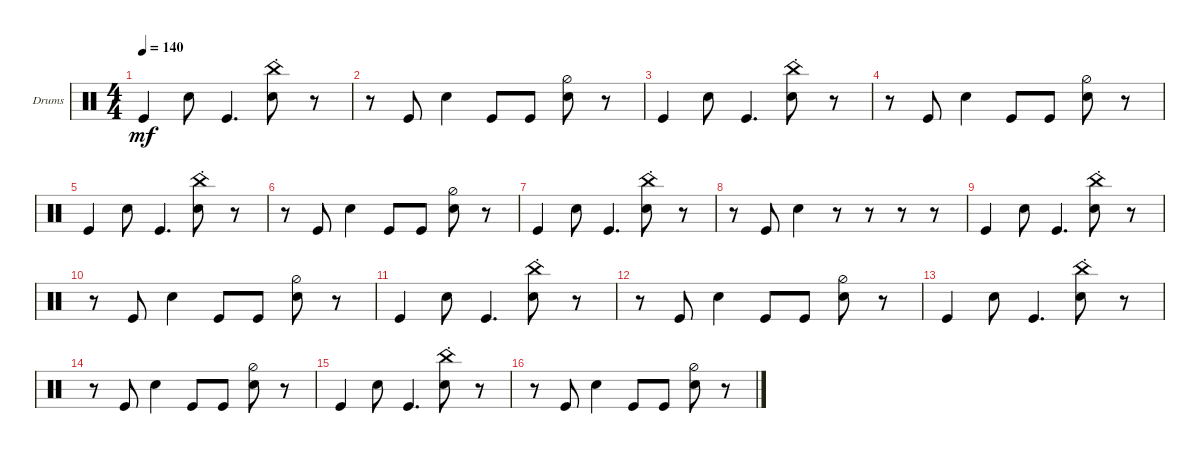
\defaultSystemsLayout 4
\bracketExtendMode groupsimilarinstruments
\firstSystemTrackNameOrientation horizontal
\otherSystemsTrackNameOrientation horizontal
\track ("Drumkit" "Drums") {instrument percussion}
\staff {score}
\articulation defaults
\ts (4 4)
\tempo 140
\clef neutral
\ks c "Kick (hit)".4{dy mf} "Snare (hit) 2".8 "Kick (hit)".4{d}
("Snare (hit) 2" "China (hit)"{st}).8 r.8 |
r.8 "Kick (hit)".8 "Snare (hit) 2".4 "Kick (hit)".8 "Kick (hit)".8 ("Snare (hit) 2" "Hi-Hat (half)").8 r.8 |
"Kick (hit)".4 "Snare (hit) 2".8 "Kick (hit)".4{d} ("Snare (hit) 2" "China (hit)"{st}).8 r.8 |
r.8 "Kick (hit)".8 "Snare (hit) 2".4 "Kick (hit)".8 "Kick (hit)".8 ("Snare (hit) 2" "Hi-Hat (half)").8 r.8 |
"Kick (hit)".4 "Snare (hit) 2".8 "Kick (hit)".4{d} ("Snare (hit) 2" "China (hit)"{st}).8 r.8 |
r.8 "Kick (hit)".8 "Snare (hit) 2".4 "Kick (hit)".8 "Kick (hit)".8 ("Snare (hit) 2" "Hi-Hat (half)").8 r.8 |
"Kick (hit)".4 "Snare (hit) 2".8 "Kick (hit)".4{d} ("Snare (hit) 2" "China (hit)"{st}).8 r.8 |
r.8 "Kick (hit)".8 "Snare (hit) 2".4 r.8 r.8 r.8 r.8 |
"Kick (hit)".4 "Snare (hit) 2".8 "Kick (hit)".4{d} ("Snare (hit) 2" "China (hit)"{st}).8 r.8 |
r.8 "Kick (hit)".8 "Snare (hit) 2".4 "Kick (hit)".8 "Kick (hit)".8 ("Snare (hit) 2" "Hi-Hat (half)").8 r.8 |
"Kick (hit)".4 "Snare (hit) 2".8 "Kick (hit)".4{d} ("Snare (hit) 2" "China (hit)"{st}).8 r.8 |
r.8 "Kick (hit)".8 "Snare (hit) 2".4 "Kick (hit)".8 "Kick (hit)".8 ("Snare (hit) 2" "Hi-Hat (half)").8 r.8 |
"Kick (hit)".4 "Snare (hit) 2".8 "Kick (hit)".4{d} ("Snare (hit) 2" "China (hit)"{st}).8 r.8 |
r.8 "Kick (hit)".8 "Snare (hit) 2".4 "Kick (hit)".8 "Kick (hit)".8 ("Snare (hit) 2" "Hi-Hat (half)").8 r.8 |
"Kick (hit)".4 "Snare (hit) 2".8 "Kick (hit)".4{d} ("Snare (hit) 2" "China (hit)"{st}).8 r.8 |
r.8 "Kick (hit)".8 "Snare (hit) 2".4 "Kick (hit)".8 "Kick (hit)".8 ("Snare (hit) 2" "Hi-Hat (half)").8 r.8
